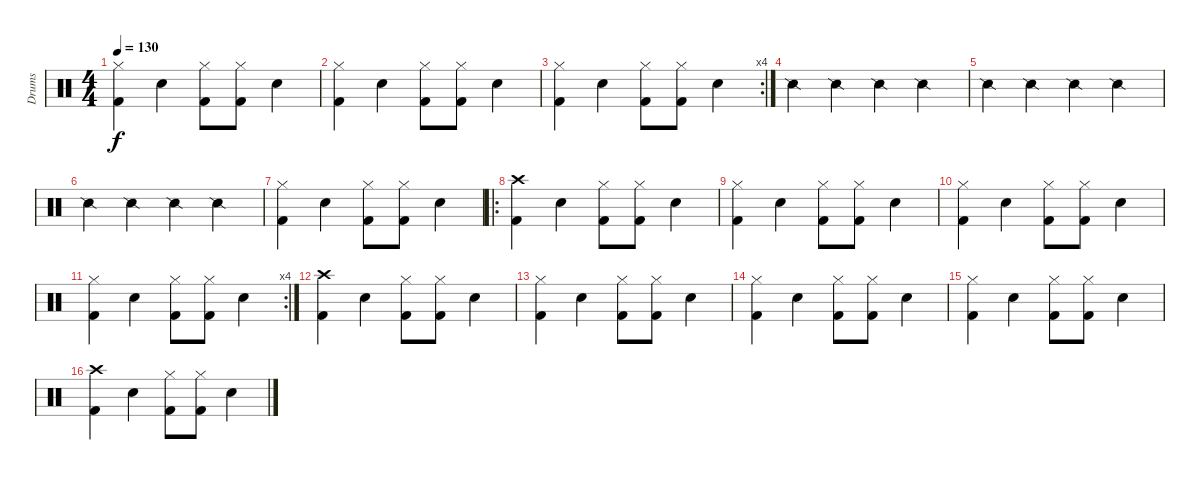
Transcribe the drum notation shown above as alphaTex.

\track ("Drums" "Drums") {instrument percussion}
\staff {score}
\articulation defaults
\ts (4 4)
\tempo 130
\clef neutral
\ks c
("Hi-Hat (closed)" "Kick (hit) 2").4{dy f} "Electric Snare (hit)".4 ("Kick (hit) 2" "Hi-Hat (closed)").8 ("Kick (hit) 2" "Hi-Hat (closed)").8 "Electric Snare (hit)".4 |
("Hi-Hat (closed)" "Kick (hit) 2").4 "Electric Snare (hit)".4 ("Kick (hit) 2" "Hi-Hat (closed)").8 ("Kick (hit) 2" "Hi-Hat (closed)").8 "Electric Snare (hit)".4 |
\rc 4
("Hi-Hat (closed)" "Kick (hit) 2").4 "Electric Snare (hit)".4 ("Kick (hit) 2" "Hi-Hat (closed)").8 ("Kick (hit) 2" "Hi-Hat (closed)").8 "Electric Snare (hit)".4 |
"Snare (side stick) 2".4 "Snare (side stick) 2".4 "Snare (side stick) 2".4 "Snare (side stick) 2".4 |
"Snare (side stick) 2".4 "Snare (side stick) 2".4 "Snare (side stick) 2".4 "Snare (side stick) 2".4 |
"Snare (side stick) 2".4 "Snare (side stick) 2".4 "Snare (side stick) 2".4 "Snare (side stick) 2".4 |
("Hi-Hat (closed)" "Kick (hit) 2").4 "Electric Snare (hit)".4 ("Kick (hit) 2" "Hi-Hat (closed)").8 ("Kick (hit) 2" "Hi-Hat (closed)").8 "Electric Snare (hit)".4 |
\ro
("Crash high (hit)" "Kick (hit) 2").4 "Electric Snare (hit)".4 ("Kick (hit) 2" "Hi-Hat (closed)").8 ("Kick (hit) 2" "Hi-Hat (closed)").8 "Electric Snare (hit)".4 |
("Hi-Hat (closed)" "Kick (hit) 2").4 "Electric Snare (hit)".4 ("Kick (hit) 2" "Hi-Hat (closed)").8 ("Kick (hit) 2" "Hi-Hat (closed)").8 "Electric Snare (hit)".4 |
("Hi-Hat (closed)" "Kick (hit) 2").4 "Electric Snare (hit)".4 ("Kick (hit) 2" "Hi-Hat (closed)").8 ("Kick (hit) 2" "Hi-Hat (closed)").8 "Electric Snare (hit)".4 |
\rc 4
("Hi-Hat (closed)" "Kick (hit) 2").4 "Electric Snare (hit)".4 ("Kick (hit) 2" "Hi-Hat (closed)").8 ("Kick (hit) 2" "Hi-Hat (closed)").8 "Electric Snare (hit)".4 |
("Crash high (hit)" "Kick (hit) 2").4 "Electric Snare (hit)".4 ("Kick (hit) 2" "Hi-Hat (closed)").8 ("Kick (hit) 2" "Hi-Hat (closed)").8 "Electric Snare (hit)".4 |
("Hi-Hat (closed)" "Kick (hit) 2").4 "Electric Snare (hit)".4 ("Kick (hit) 2" "Hi-Hat (closed)").8 ("Kick (hit) 2" "Hi-Hat (closed)").8 "Electric Snare (hit)".4 |
("Hi-Hat (closed)" "Kick (hit) 2").4 "Electric Snare (hit)".4 ("Kick (hit) 2" "Hi-Hat (closed)").8 ("Kick (hit) 2" "Hi-Hat (closed)").8 "Electric Snare (hit)".4 |
("Hi-Hat (closed)" "Kick (hit) 2").4 "Electric Snare (hit)".4 ("Kick (hit) 2" "Hi-Hat (closed)").8 ("Kick (hit) 2" "Hi-Hat (closed)").8 "Electric Snare (hit)".4 |
("Crash high (hit)" "Kick (hit) 2").4 "Electric Snare (hit)".4 ("Kick (hit) 2" "Hi-Hat (closed)").8 ("Kick (hit) 2" "Hi-Hat (closed)").8 "Electric Snare (hit)".4
